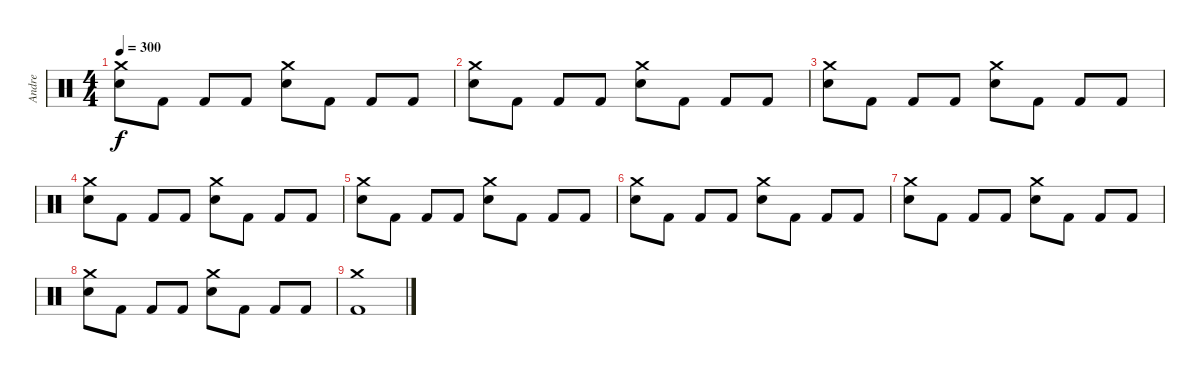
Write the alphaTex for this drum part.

\track ("Andre" "Andre") {instrument percussion}
\staff {score}
\articulation defaults
\ts (4 4)
\tempo 300
\clef neutral
\ks c
("Crash medium (hit)" "Electric Snare (hit)").8{dy f} "Kick (hit) 2".8 "Kick (hit) 2".8 "Kick (hit) 2".8 ("Crash medium (hit)" "Electric Snare (hit)").8 "Kick (hit) 2".8 "Kick (hit) 2".8 "Kick (hit) 2".8 |
("Crash medium (hit)" "Electric Snare (hit)").8 "Kick (hit) 2".8 "Kick (hit) 2".8 "Kick (hit) 2".8 ("Crash medium (hit)" "Electric Snare (hit)").8 "Kick (hit) 2".8 "Kick (hit) 2".8 "Kick (hit) 2".8 |
("Crash medium (hit)" "Electric Snare (hit)").8 "Kick (hit) 2".8 "Kick (hit) 2".8 "Kick (hit) 2".8 ("Crash medium (hit)" "Electric Snare (hit)").8 "Kick (hit) 2".8 "Kick (hit) 2".8 "Kick (hit) 2".8 |
("Crash medium (hit)" "Electric Snare (hit)").8 "Kick (hit) 2".8 "Kick (hit) 2".8 "Kick (hit) 2".8 ("Crash medium (hit)" "Electric Snare (hit)").8 "Kick (hit) 2".8 "Kick (hit) 2".8 "Kick (hit) 2".8 |
("Crash medium (hit)" "Electric Snare (hit)").8 "Kick (hit) 2".8 "Kick (hit) 2".8 "Kick (hit) 2".8 ("Crash medium (hit)" "Electric Snare (hit)").8 "Kick (hit) 2".8 "Kick (hit) 2".8 "Kick (hit) 2".8 |
("Crash medium (hit)" "Electric Snare (hit)").8 "Kick (hit) 2".8 "Kick (hit) 2".8 "Kick (hit) 2".8 ("Crash medium (hit)" "Electric Snare (hit)").8 "Kick (hit) 2".8 "Kick (hit) 2".8 "Kick (hit) 2".8 |
("Crash medium (hit)" "Electric Snare (hit)").8 "Kick (hit) 2".8 "Kick (hit) 2".8 "Kick (hit) 2".8 ("Crash medium (hit)" "Electric Snare (hit)").8 "Kick (hit) 2".8 "Kick (hit) 2".8 "Kick (hit) 2".8 |
("Crash medium (hit)" "Electric Snare (hit)").8 "Kick (hit) 2".8 "Kick (hit) 2".8 "Kick (hit) 2".8 ("Crash medium (hit)" "Electric Snare (hit)").8 "Kick (hit) 2".8 "Kick (hit) 2".8 "Kick (hit) 2".8 |
("Crash medium (hit)" "Kick (hit) 2").1
